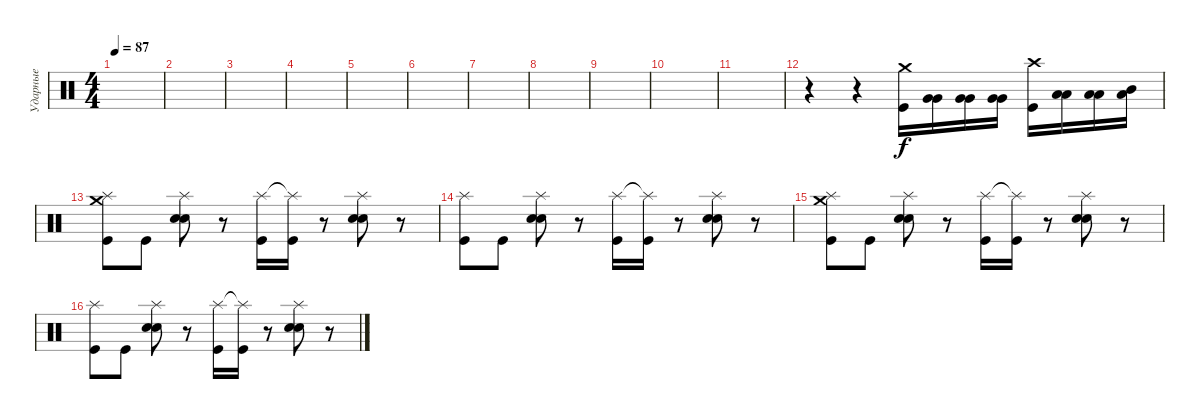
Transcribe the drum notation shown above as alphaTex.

\track ("Ударные" "Ударные") {instrument percussion}
\staff {score}
\articulation defaults
\ts (4 4)
\tempo 87
\clef neutral
\ks c
|
|
|
|
|
|
|
|
|
|
|
r.4 r.4 ("Crash medium (hit)" "Kick (hit)").16 ("Very Low Tom (hit)" "Very Low Tom (hit)").16 ("Very Low Tom (hit)" "Very Low Tom (hit)").16 ("Very Low Tom (hit)" "Very Low Tom (hit)").16 ("Crash high (hit)" "Kick (hit)").16 ("Low Floor Tom (hit)" "Low Floor Tom (hit)").16 ("Low Floor Tom (hit)" "Low Floor Tom (hit)").16 ("Low Floor Tom (hit)" "Mid Tom (hit)").16 |
("Splash (hit)" "Crash medium (hit)" "Kick (hit)").8 "Kick (hit)".8 ("Splash (hit)" "Electric Snare (hit)" "Electric Snare (hit)").8 r.8 ("Splash (hit)" "Kick (hit)").16 ("Splash (hit)"{t} "Kick (hit)").16 r.8 ("Splash (hit)" "Electric Snare (hit)" "Electric Snare (hit)").8 r.8 |
("Splash (hit)" "Kick (hit)").8 "Kick (hit)".8 ("Splash (hit)" "Electric Snare (hit)" "Electric Snare (hit)").8 r.8 ("Splash (hit)" "Kick (hit)").16 ("Splash (hit)"{t} "Kick (hit)").16 r.8 ("Splash (hit)" "Electric Snare (hit)" "Electric Snare (hit)").8 r.8 |
("Splash (hit)" "Crash medium (hit)" "Kick (hit)").8 "Kick (hit)".8 ("Splash (hit)" "Electric Snare (hit)" "Electric Snare (hit)").8 r.8 ("Splash (hit)" "Kick (hit)").16 ("Splash (hit)"{t} "Kick (hit)").16 r.8 ("Splash (hit)" "Electric Snare (hit)" "Electric Snare (hit)").8 r.8 |
("Splash (hit)" "Kick (hit)").8 "Kick (hit)".8 ("Splash (hit)" "Electric Snare (hit)" "Electric Snare (hit)").8 r.8 ("Splash (hit)" "Kick (hit)").16 ("Splash (hit)"{t} "Kick (hit)").16 r.8 ("Splash (hit)" "Electric Snare (hit)" "Electric Snare (hit)").8 r.8
